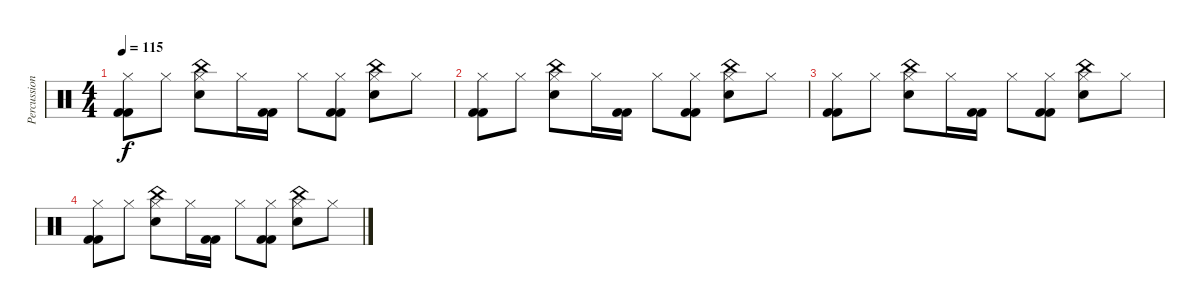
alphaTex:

\track ("Percussion" "Percussion") {instrument percussion}
\staff {score}
\articulation defaults
\ts (4 4)
\tempo 115
\clef neutral
\ks c
("Hi-Hat (closed)" "Kick (hit) 2" "Kick (hit) 2").8{dy f} "Hi-Hat (closed)".8 ("Hi-Hat (closed)" "Electric Snare (hit)" "China (hit)").8 "Hi-Hat (closed)".16 ("Kick (hit) 2" "Kick (hit) 2").16 "Hi-Hat (closed)".8 ("Hi-Hat (closed)" "Kick (hit) 2" "Kick (hit) 2").8 ("Hi-Hat (closed)" "Electric Snare (hit)" "China (hit)").8 "Hi-Hat (closed)".8 |
("Hi-Hat (closed)" "Kick (hit) 2" "Kick (hit) 2").8 "Hi-Hat (closed)".8 ("Hi-Hat (closed)" "Electric Snare (hit)" "China (hit)").8 "Hi-Hat (closed)".16 ("Kick (hit) 2" "Kick (hit) 2").16 "Hi-Hat (closed)".8 ("Hi-Hat (closed)" "Kick (hit) 2" "Kick (hit) 2").8 ("Hi-Hat (closed)" "Electric Snare (hit)" "China (hit)").8 "Hi-Hat (closed)".8 |
("Hi-Hat (closed)" "Kick (hit) 2" "Kick (hit) 2").8 "Hi-Hat (closed)".8 ("Hi-Hat (closed)" "Electric Snare (hit)" "China (hit)").8 "Hi-Hat (closed)".16 ("Kick (hit) 2" "Kick (hit) 2").16 "Hi-Hat (closed)".8 ("Hi-Hat (closed)" "Kick (hit) 2" "Kick (hit) 2").8 ("Hi-Hat (closed)" "Electric Snare (hit)" "China (hit)").8 "Hi-Hat (closed)".8 |
("Hi-Hat (closed)" "Kick (hit) 2" "Kick (hit) 2").8 "Hi-Hat (closed)".8 ("Hi-Hat (closed)" "Electric Snare (hit)" "China (hit)").8 "Hi-Hat (closed)".16 ("Kick (hit) 2" "Kick (hit) 2").16 "Hi-Hat (closed)".8 ("Hi-Hat (closed)" "Kick (hit) 2" "Kick (hit) 2").8 ("Hi-Hat (closed)" "Electric Snare (hit)" "China (hit)").8 "Hi-Hat (closed)".8
